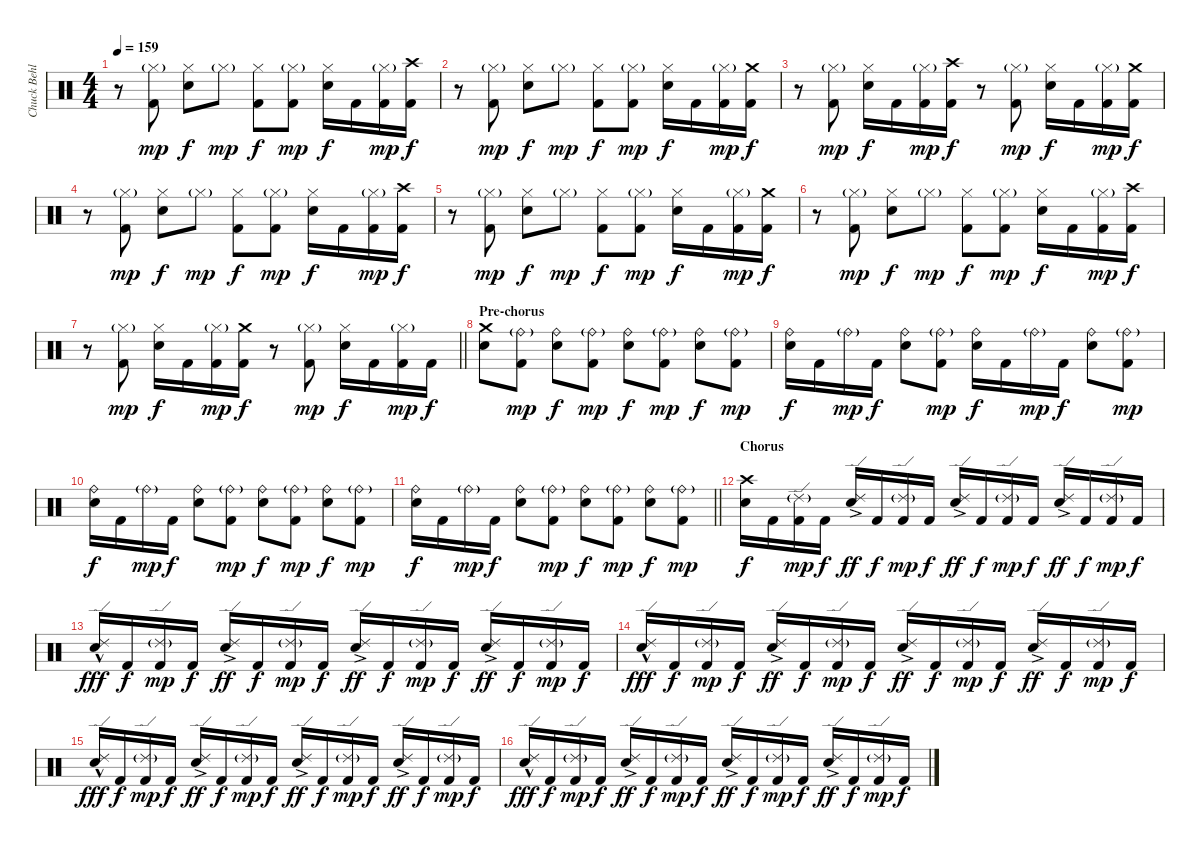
\track ("Chuck Behler" "Chuck Behl") {instrument percussion}
\staff {score}
\articulation defaults
\ts (4 4)
\tempo 159
\clef neutral
\ks c
r.8{dy f} ("Hi-Hat (closed)"{g} "Kick (hit) 2").8{dy mp} ("Hi-Hat (closed)" "Snare (hit) 2").8{dy f} "Hi-Hat (closed)"{g}.8{dy mp} ("Hi-Hat (closed)" "Kick (hit) 2").8{dy f} ("Hi-Hat (closed)"{g} "Kick (hit) 2").8{dy mp} ("Hi-Hat (closed)" "Snare (hit) 2").16{dy f} "Kick (hit) 2".16 ("Hi-Hat (closed)"{g} "Kick (hit) 2").16{dy mp} ("Crash high (hit)" "Kick (hit) 2").16{dy f} |
r.8 ("Hi-Hat (closed)"{g} "Kick (hit) 2").8{dy mp} ("Hi-Hat (closed)" "Snare (hit) 2").8{dy f} "Hi-Hat (closed)"{g}.8{dy mp} ("Hi-Hat (closed)" "Kick (hit) 2").8{dy f} ("Hi-Hat (closed)"{g} "Kick (hit) 2").8{dy mp} ("Hi-Hat (closed)" "Snare (hit) 2").16{dy f} "Kick (hit) 2".16 ("Hi-Hat (closed)"{g} "Kick (hit) 2").16{dy mp} ("Crash medium (hit)" "Kick (hit) 2").16{dy f} |
r.8 ("Hi-Hat (closed)"{g} "Kick (hit) 2").8{dy mp} ("Hi-Hat (closed)" "Snare (hit) 2").16{dy f} "Kick (hit) 2".16 ("Hi-Hat (closed)"{g} "Kick (hit) 2").16{dy mp} ("Crash high (hit)" "Kick (hit) 2").16{dy f} r.8 ("Hi-Hat (closed)"{g} "Kick (hit) 2").8{dy mp} ("Hi-Hat (closed)" "Snare (hit) 2").16{dy f} "Kick (hit) 2".16 ("Hi-Hat (closed)"{g} "Kick (hit) 2").16{dy mp} ("Crash medium (hit)" "Kick (hit) 2").16{dy f} |
r.8 ("Hi-Hat (closed)"{g} "Kick (hit) 2").8{dy mp} ("Hi-Hat (closed)" "Snare (hit) 2").8{dy f} "Hi-Hat (closed)"{g}.8{dy mp} ("Hi-Hat (closed)" "Kick (hit) 2").8{dy f} ("Hi-Hat (closed)"{g} "Kick (hit) 2").8{dy mp} ("Hi-Hat (closed)" "Snare (hit) 2").16{dy f} "Kick (hit) 2".16 ("Hi-Hat (closed)"{g} "Kick (hit) 2").16{dy mp} ("Crash high (hit)" "Kick (hit) 2").16{dy f} |
r.8 ("Hi-Hat (closed)"{g} "Kick (hit) 2").8{dy mp} ("Hi-Hat (closed)" "Snare (hit) 2").8{dy f} "Hi-Hat (closed)"{g}.8{dy mp} ("Hi-Hat (closed)" "Kick (hit) 2").8{dy f} ("Hi-Hat (closed)"{g} "Kick (hit) 2").8{dy mp} ("Hi-Hat (closed)" "Snare (hit) 2").16{dy f} "Kick (hit) 2".16 ("Hi-Hat (closed)"{g} "Kick (hit) 2").16{dy mp} ("Crash medium (hit)" "Kick (hit) 2").16{dy f} |
r.8 ("Hi-Hat (closed)"{g} "Kick (hit) 2").8{dy mp} ("Hi-Hat (closed)" "Snare (hit) 2").8{dy f} "Hi-Hat (closed)"{g}.8{dy mp} ("Hi-Hat (closed)" "Kick (hit) 2").8{dy f} ("Hi-Hat (closed)"{g} "Kick (hit) 2").8{dy mp} ("Hi-Hat (closed)" "Snare (hit) 2").16{dy f} "Kick (hit) 2".16 ("Hi-Hat (closed)"{g} "Kick (hit) 2").16{dy mp} ("Crash high (hit)" "Kick (hit) 2").16{dy f} |
\barLineRight lightlight
r.8 ("Hi-Hat (closed)"{g} "Kick (hit) 2").8{dy mp} ("Hi-Hat (closed)" "Snare (hit) 2").16{dy f} "Kick (hit) 2".16 ("Hi-Hat (closed)"{g} "Kick (hit) 2").16{dy mp} ("Crash medium (hit)" "Kick (hit) 2").16{dy f} r.8 ("Hi-Hat (closed)"{g} "Kick (hit) 2").8{dy mp} ("Hi-Hat (closed)" "Snare (hit) 2").16{dy f} "Kick (hit) 2".16 ("Hi-Hat (closed)"{g} "Kick (hit) 2").16{dy mp} "Kick (hit) 2".16{dy f} |
\section ("" "Pre-chorus")
("Crash medium (hit)" "Snare (hit) 2").8 ("Ride (bell)"{g} "Kick (hit) 2").8{dy mp} ("Ride (bell)" "Snare (hit) 2").8{dy f} ("Ride (bell)"{g} "Kick (hit) 2").8{dy mp} ("Ride (bell)" "Snare (hit) 2").8{dy f} ("Ride (bell)"{g} "Kick (hit) 2").8{dy mp} ("Ride (bell)" "Snare (hit) 2").8{dy f} ("Ride (bell)"{g} "Kick (hit) 2").8{dy mp} |
("Ride (bell)" "Snare (hit) 2").16{dy f} "Kick (hit) 2".16 "Ride (bell)"{g}.16{dy mp} "Kick (hit) 2".16{dy f} ("Ride (bell)" "Snare (hit) 2").8 ("Ride (bell)"{g} "Kick (hit) 2").8{dy mp} ("Ride (bell)" "Snare (hit) 2").16{dy f} "Kick (hit) 2".16 "Ride (bell)"{g}.16{dy mp} "Kick (hit) 2".16{dy f} ("Ride (bell)" "Snare (hit) 2").8 ("Ride (bell)"{g} "Kick (hit) 2").8{dy mp} |
("Ride (bell)" "Snare (hit) 2").16{dy f} "Kick (hit) 2".16 "Ride (bell)"{g}.16{dy mp} "Kick (hit) 2".16{dy f} ("Ride (bell)" "Snare (hit) 2").8 ("Ride (bell)"{g} "Kick (hit) 2").8{dy mp} ("Ride (bell)" "Snare (hit) 2").8{dy f} ("Ride (bell)"{g} "Kick (hit) 2").8{dy mp} ("Ride (bell)" "Snare (hit) 2").8{dy f} ("Ride (bell)"{g} "Kick (hit) 2").8{dy mp} |
\barLineRight lightlight
("Ride (bell)" "Snare (hit) 2").16{dy f} "Kick (hit) 2".16 "Ride (bell)"{g}.16{dy mp} "Kick (hit) 2".16{dy f} ("Ride (bell)" "Snare (hit) 2").8 ("Ride (bell)"{g} "Kick (hit) 2").8{dy mp} ("Ride (bell)" "Snare (hit) 2").8{dy f} ("Ride (bell)"{g} "Kick (hit) 2").8{dy mp} ("Ride (bell)" "Snare (hit) 2").8{dy f} ("Ride (bell)"{g} "Kick (hit) 2").8{dy mp} |
\section ("" "Chorus")
("Crash high (hit)" "Snare (hit) 2").16{dy f} "Kick (hit) 2".16 ("Ride (edge) 2"{g} "Kick (hit) 2").16{dy mp} "Kick (hit) 2".16{dy f} ("Ride (edge) 2"{ac} "Snare (hit) 2").16{dy ff} "Kick (hit) 2".16{dy f} ("Ride (edge) 2"{g} "Kick (hit) 2").16{dy mp} "Kick (hit) 2".16{dy f} ("Ride (edge) 2"{ac} "Snare (hit) 2").16{dy ff} "Kick (hit) 2".16{dy f} ("Ride (edge) 2"{g} "Kick (hit) 2").16{dy mp} "Kick (hit) 2".16{dy f} ("Ride (edge) 2"{ac} "Snare (hit) 2").16{dy ff} "Kick (hit) 2".16{dy f} ("Ride (edge) 2"{g} "Kick (hit) 2").16{dy mp} "Kick (hit) 2".16{dy f} |
("Ride (edge) 2"{hac} "Snare (hit) 2").16{dy fff} "Kick (hit) 2".16{dy f} ("Ride (edge) 2"{g} "Kick (hit) 2").16{dy mp} "Kick (hit) 2".16{dy f} ("Ride (edge) 2"{ac} "Snare (hit) 2").16{dy ff} "Kick (hit) 2".16{dy f} ("Ride (edge) 2"{g} "Kick (hit) 2").16{dy mp} "Kick (hit) 2".16{dy f} ("Ride (edge) 2"{ac} "Snare (hit) 2").16{dy ff} "Kick (hit) 2".16{dy f} ("Ride (edge) 2"{g} "Kick (hit) 2").16{dy mp} "Kick (hit) 2".16{dy f} ("Ride (edge) 2"{ac} "Snare (hit) 2").16{dy ff} "Kick (hit) 2".16{dy f} ("Ride (edge) 2"{g} "Kick (hit) 2").16{dy mp} "Kick (hit) 2".16{dy f} |
("Ride (edge) 2"{hac} "Snare (hit) 2").16{dy fff} "Kick (hit) 2".16{dy f} ("Ride (edge) 2"{g} "Kick (hit) 2").16{dy mp} "Kick (hit) 2".16{dy f} ("Ride (edge) 2"{ac} "Snare (hit) 2").16{dy ff} "Kick (hit) 2".16{dy f} ("Ride (edge) 2"{g} "Kick (hit) 2").16{dy mp} "Kick (hit) 2".16{dy f} ("Ride (edge) 2"{ac} "Snare (hit) 2").16{dy ff} "Kick (hit) 2".16{dy f} ("Ride (edge) 2"{g} "Kick (hit) 2").16{dy mp} "Kick (hit) 2".16{dy f} ("Ride (edge) 2"{ac} "Snare (hit) 2").16{dy ff} "Kick (hit) 2".16{dy f} ("Ride (edge) 2"{g} "Kick (hit) 2").16{dy mp} "Kick (hit) 2".16{dy f} |
("Ride (edge) 2"{hac} "Snare (hit) 2").16{dy fff} "Kick (hit) 2".16{dy f} ("Ride (edge) 2"{g} "Kick (hit) 2").16{dy mp} "Kick (hit) 2".16{dy f} ("Ride (edge) 2"{ac} "Snare (hit) 2").16{dy ff} "Kick (hit) 2".16{dy f} ("Ride (edge) 2"{g} "Kick (hit) 2").16{dy mp} "Kick (hit) 2".16{dy f} ("Ride (edge) 2"{ac} "Snare (hit) 2").16{dy ff} "Kick (hit) 2".16{dy f} ("Ride (edge) 2"{g} "Kick (hit) 2").16{dy mp} "Kick (hit) 2".16{dy f} ("Ride (edge) 2"{ac} "Snare (hit) 2").16{dy ff} "Kick (hit) 2".16{dy f} ("Ride (edge) 2"{g} "Kick (hit) 2").16{dy mp} "Kick (hit) 2".16{dy f} |
("Ride (edge) 2"{hac} "Snare (hit) 2").16{dy fff} "Kick (hit) 2".16{dy f} ("Ride (edge) 2"{g} "Kick (hit) 2").16{dy mp} "Kick (hit) 2".16{dy f} ("Ride (edge) 2"{ac} "Snare (hit) 2").16{dy ff} "Kick (hit) 2".16{dy f} ("Ride (edge) 2"{g} "Kick (hit) 2").16{dy mp} "Kick (hit) 2".16{dy f} ("Ride (edge) 2"{ac} "Snare (hit) 2").16{dy ff} "Kick (hit) 2".16{dy f} ("Ride (edge) 2"{g} "Kick (hit) 2").16{dy mp} "Kick (hit) 2".16{dy f} ("Ride (edge) 2"{ac} "Snare (hit) 2").16{dy ff} "Kick (hit) 2".16{dy f} ("Ride (edge) 2"{g} "Kick (hit) 2").16{dy mp} "Kick (hit) 2".16{dy f}
